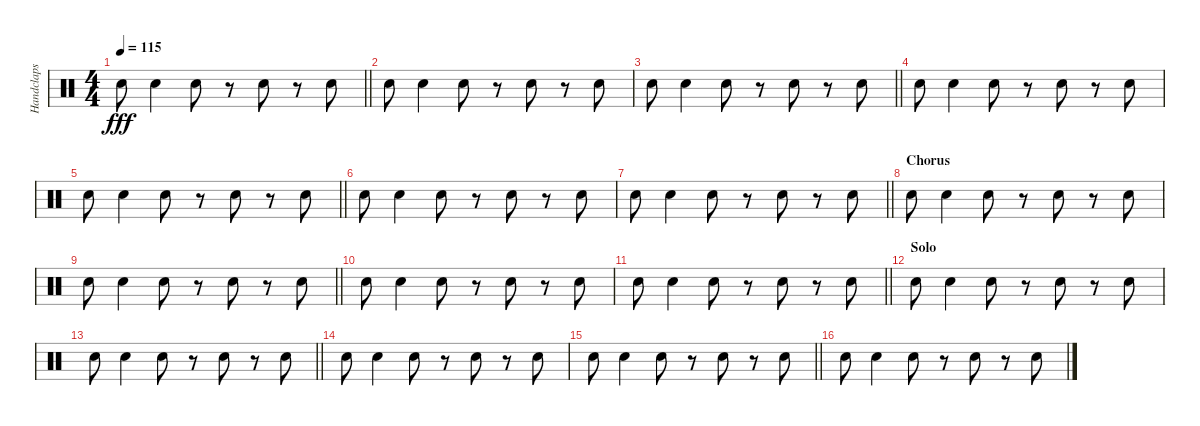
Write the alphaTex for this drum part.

\track ("Handclaps" "Handclaps") {instrument percussion}
\staff {score}
\articulation defaults
\ts (4 4)
\tempo 115
\clef neutral
\barLineRight lightlight
\ks c "Hand Clap (hit)".8{dy fff} "Hand Clap (hit)".4 "Hand Clap (hit)".8
r.8 "Hand Clap (hit)".8 r.8 "Hand Clap (hit)".8 |
"Hand Clap (hit)".8 "Hand Clap (hit)".4 "Hand Clap (hit)".8 r.8 "Hand Clap (hit)".8 r.8 "Hand Clap (hit)".8 |
\barLineRight lightlight "Hand Clap (hit)".8 "Hand Clap (hit)".4 "Hand Clap (hit)".8
r.8 "Hand Clap (hit)".8 r.8 "Hand Clap (hit)".8 |
"Hand Clap (hit)".8 "Hand Clap (hit)".4 "Hand Clap (hit)".8 r.8 "Hand Clap (hit)".8 r.8 "Hand Clap (hit)".8 |
\barLineRight lightlight "Hand Clap (hit)".8 "Hand Clap (hit)".4 "Hand Clap (hit)".8
r.8 "Hand Clap (hit)".8 r.8 "Hand Clap (hit)".8 |
"Hand Clap (hit)".8 "Hand Clap (hit)".4 "Hand Clap (hit)".8 r.8 "Hand Clap (hit)".8 r.8 "Hand Clap (hit)".8 |
\barLineRight lightlight "Hand Clap (hit)".8 "Hand Clap (hit)".4 "Hand Clap (hit)".8
r.8 "Hand Clap (hit)".8 r.8 "Hand Clap (hit)".8 |
\section ("" "Chorus")
"Hand Clap (hit)".8 "Hand Clap (hit)".4 "Hand Clap (hit)".8 r.8 "Hand Clap (hit)".8 r.8 "Hand Clap (hit)".8 |
\barLineRight lightlight "Hand Clap (hit)".8 "Hand Clap (hit)".4 "Hand Clap (hit)".8
r.8 "Hand Clap (hit)".8 r.8 "Hand Clap (hit)".8 |
"Hand Clap (hit)".8 "Hand Clap (hit)".4 "Hand Clap (hit)".8 r.8 "Hand Clap (hit)".8 r.8 "Hand Clap (hit)".8 |
\barLineRight lightlight "Hand Clap (hit)".8 "Hand Clap (hit)".4 "Hand Clap (hit)".8
r.8 "Hand Clap (hit)".8 r.8 "Hand Clap (hit)".8 |
\section ("" "Solo")
"Hand Clap (hit)".8 "Hand Clap (hit)".4 "Hand Clap (hit)".8 r.8 "Hand Clap (hit)".8 r.8 "Hand Clap (hit)".8 |
\barLineRight lightlight "Hand Clap (hit)".8 "Hand Clap (hit)".4 "Hand Clap (hit)".8
r.8 "Hand Clap (hit)".8 r.8 "Hand Clap (hit)".8 |
"Hand Clap (hit)".8 "Hand Clap (hit)".4 "Hand Clap (hit)".8 r.8 "Hand Clap (hit)".8 r.8 "Hand Clap (hit)".8 |
\barLineRight lightlight "Hand Clap (hit)".8 "Hand Clap (hit)".4 "Hand Clap (hit)".8
r.8 "Hand Clap (hit)".8 r.8 "Hand Clap (hit)".8 |
"Hand Clap (hit)".8 "Hand Clap (hit)".4 "Hand Clap (hit)".8 r.8 "Hand Clap (hit)".8 r.8 "Hand Clap (hit)".8
